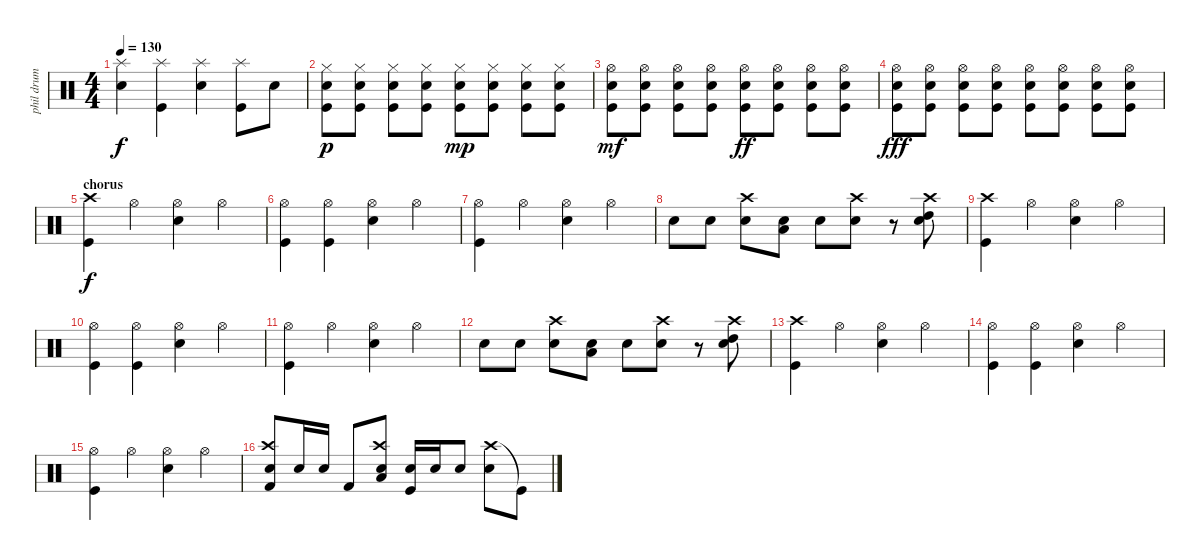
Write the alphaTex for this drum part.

\track ("phil drum" "phil drum") {instrument percussion}
\staff {score}
\articulation defaults
\ts (4 4)
\tempo 130
\clef neutral
\ks c
("Splash (hit)" "Electric Snare (hit)").4{dy f} ("Splash (hit)" "Kick (hit)").4 ("Splash (hit)" "Snare (hit) 2").4 ("Splash (hit)" "Kick (hit)").8 "Electric Snare (hit)".8 |
("Hi-Hat (closed)" "Kick (hit)" "Snare (hit) 2").8{dy p} ("Hi-Hat (closed)" "Kick (hit)" "Snare (hit) 2").8 ("Hi-Hat (closed)" "Kick (hit)" "Snare (hit) 2").8 ("Hi-Hat (closed)" "Kick (hit)" "Snare (hit) 2").8 ("Hi-Hat (closed)" "Kick (hit)" "Snare (hit) 2").8{dy mp} ("Hi-Hat (closed)" "Kick (hit)" "Snare (hit) 2").8 ("Hi-Hat (closed)" "Kick (hit)" "Snare (hit) 2").8 ("Hi-Hat (closed)" "Kick (hit)" "Snare (hit) 2").8 |
("Hi-Hat (open)" "Kick (hit)" "Snare (hit) 2").8{dy mf} ("Hi-Hat (open)" "Kick (hit)" "Snare (hit) 2").8 ("Hi-Hat (open)" "Kick (hit)" "Snare (hit) 2").8 ("Hi-Hat (open)" "Kick (hit)" "Snare (hit) 2").8 ("Hi-Hat (open)" "Kick (hit)" "Snare (hit) 2").8{dy ff} ("Hi-Hat (open)" "Kick (hit)" "Snare (hit) 2").8 ("Hi-Hat (open)" "Kick (hit)" "Snare (hit) 2").8 ("Hi-Hat (open)" "Kick (hit)" "Snare (hit) 2").8 |
("Hi-Hat (open)" "Kick (hit)" "Snare (hit) 2").8{dy fff} ("Hi-Hat (open)" "Kick (hit)" "Snare (hit) 2").8 ("Hi-Hat (open)" "Kick (hit)" "Snare (hit) 2").8 ("Hi-Hat (open)" "Kick (hit)" "Snare (hit) 2").8 ("Hi-Hat (open)" "Kick (hit)" "Snare (hit) 2").8 ("Hi-Hat (open)" "Kick (hit)" "Snare (hit) 2").8 ("Hi-Hat (open)" "Kick (hit)" "Snare (hit) 2").8 ("Hi-Hat (open)" "Kick (hit)" "Snare (hit) 2").8 |
\section ("" "chorus")
("Crash high (hit)" "Kick (hit)").4{dy f} "Hi-Hat (open)".4 ("Hi-Hat (open)" "Snare (hit) 2").4 "Hi-Hat (open)".4 |
("Hi-Hat (open)" "Kick (hit)").4 ("Hi-Hat (open)" "Kick (hit)").4 ("Hi-Hat (open)" "Snare (hit) 2").4 "Hi-Hat (open)".4 |
("Hi-Hat (open)" "Kick (hit)").4 "Hi-Hat (open)".4 ("Hi-Hat (open)" "Snare (hit) 2").4 "Hi-Hat (open)".4 |
"Electric Snare (hit)".8 "Snare (hit) 2".8 ("Crash high (hit)" "Snare (hit) 2").8 ("Electric Snare (hit)" "Low Floor Tom (hit)").8 "Snare (hit) 2".8 ("Crash high (hit)" "Electric Snare (hit)").8 r.8 ("Crash high (hit)" "High Tom (hit)" "Electric Snare (hit)").8 |
("Crash high (hit)" "Kick (hit)").4 "Hi-Hat (open)".4 ("Hi-Hat (open)" "Snare (hit) 2").4 "Hi-Hat (open)".4 |
("Hi-Hat (open)" "Kick (hit)").4 ("Hi-Hat (open)" "Kick (hit)").4 ("Hi-Hat (open)" "Snare (hit) 2").4 "Hi-Hat (open)".4 |
("Hi-Hat (open)" "Kick (hit)").4 "Hi-Hat (open)".4 ("Hi-Hat (open)" "Snare (hit) 2").4 "Hi-Hat (open)".4 |
"Electric Snare (hit)".8 "Snare (hit) 2".8 ("Crash high (hit)" "Snare (hit) 2").8 ("Electric Snare (hit)" "Low Floor Tom (hit)").8 "Snare (hit) 2".8 ("Crash high (hit)" "Snare (hit) 2").8 r.8 ("Crash high (hit)" "High Tom (hit)" "Electric Snare (hit)").8 |
("Crash high (hit)" "Kick (hit)").4 "Hi-Hat (open)".4 ("Hi-Hat (open)" "Snare (hit) 2").4 "Hi-Hat (open)".4 |
("Hi-Hat (open)" "Kick (hit)").4 ("Hi-Hat (open)" "Kick (hit)").4 ("Hi-Hat (open)" "Snare (hit) 2").4 "Hi-Hat (open)".4 |
("Hi-Hat (open)" "Kick (hit)").4 "Hi-Hat (open)".4 ("Hi-Hat (open)" "Snare (hit) 2").4 "Hi-Hat (open)".4 |
("Crash high (hit)" "Kick (hit) 2" "Snare (hit) 2").8 "Snare (hit) 2".16 "Snare (hit) 2".16 "Kick (hit) 2".8 ("Crash high (hit)" "Electric Snare (hit)" "Low Floor Tom (hit)").8 ("Snare (hit) 2" "Kick (hit)").16 "Snare (hit) 2".16 "Electric Snare (hit)".8 ("Crash high (hit)" "Electric Snare (hit)").8 "Kick (hit)"{t}.8
